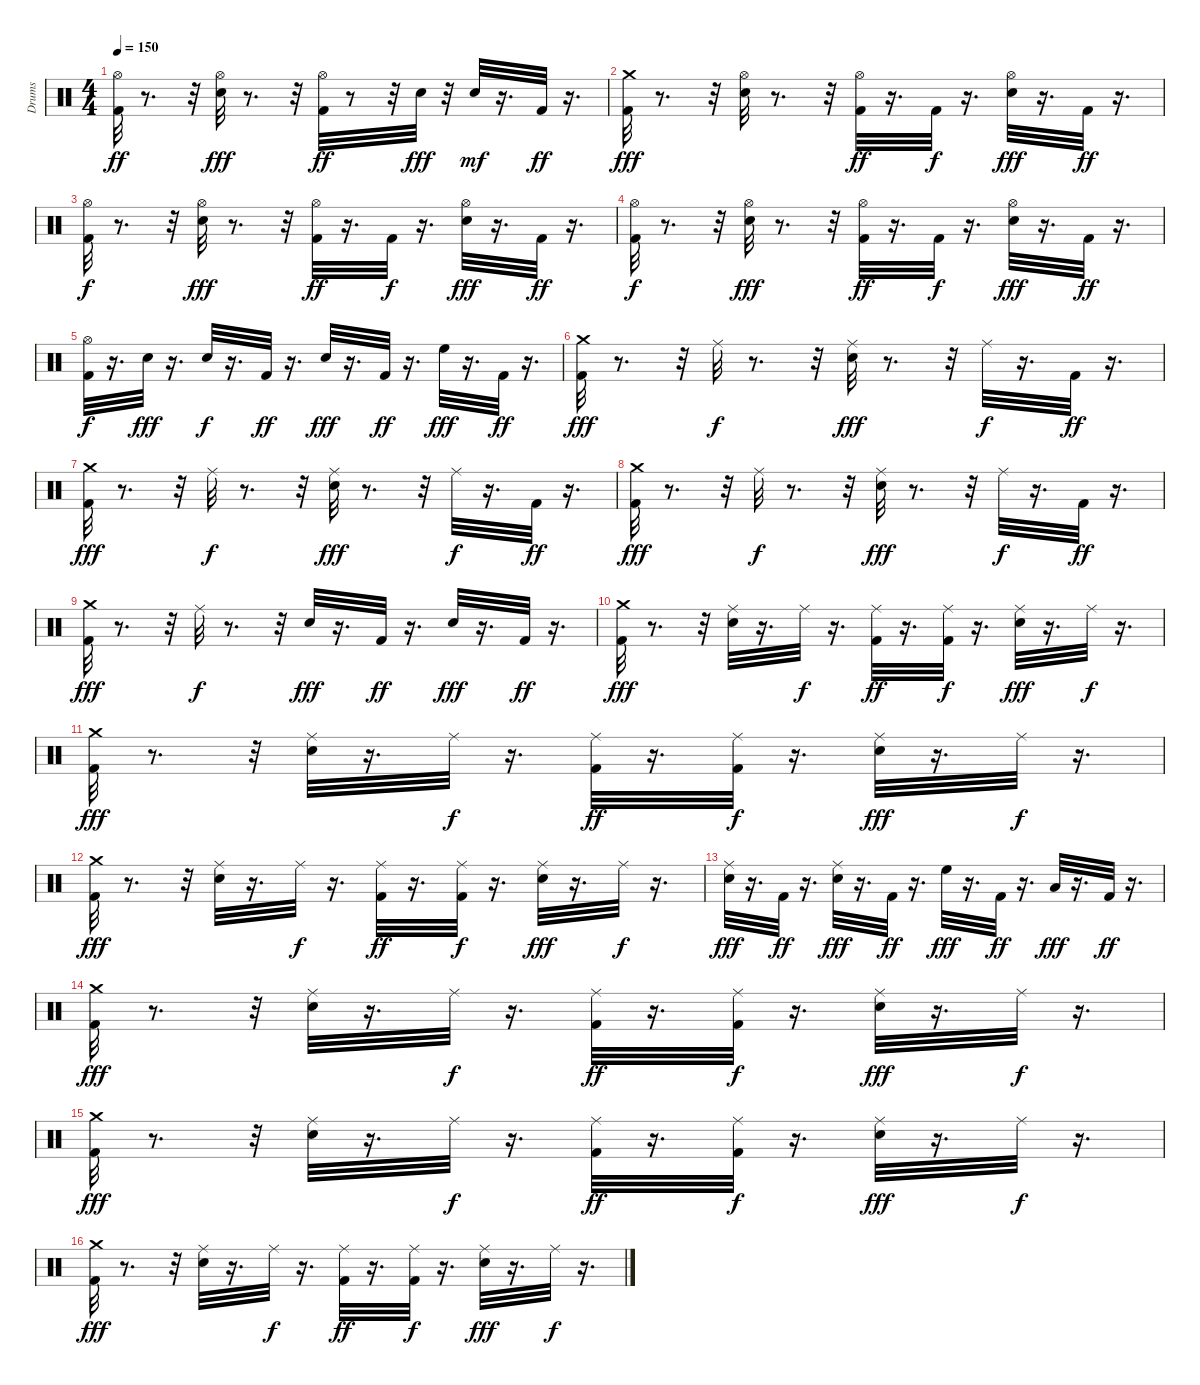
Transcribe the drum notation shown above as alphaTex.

\track ("Drums" "Drums") {instrument percussion}
\staff {score}
\articulation defaults
\ts (4 4)
\tempo 150
\clef neutral
\ks c
("Kick (hit) 2" "Hi-Hat (open)").32{dy ff} r.8{d} r.32 ("Snare (hit) 2" "Hi-Hat (open)").32{dy fff} r.8{d} r.32 ("Kick (hit) 2" "Hi-Hat (open)").32{dy ff} r.8 r.32 "Snare (hit) 2".32{dy fff} r.32 "Snare (hit) 2".32{dy mf} r.16{d} "Kick (hit) 2".32{dy ff} r.16{d} |
("Kick (hit) 2" "Crash medium (hit)").32{dy fff} r.8{d} r.32 ("Snare (hit) 2" "Hi-Hat (open)").32 r.8{d} r.32 ("Kick (hit) 2" "Hi-Hat (open)").32{dy ff} r.16{d} "Kick (hit) 2".32{dy f} r.16{d} ("Snare (hit) 2" "Hi-Hat (open)").32{dy fff} r.16{d} "Kick (hit) 2".32{dy ff} r.16{d} |
("Kick (hit) 2" "Hi-Hat (open)").32{dy f} r.8{d} r.32 ("Snare (hit) 2" "Hi-Hat (open)").32{dy fff} r.8{d} r.32 ("Kick (hit) 2" "Hi-Hat (open)").32{dy ff} r.16{d} "Kick (hit) 2".32{dy f} r.16{d} ("Snare (hit) 2" "Hi-Hat (open)").32{dy fff} r.16{d} "Kick (hit) 2".32{dy ff} r.16{d} |
("Kick (hit) 2" "Hi-Hat (open)").32{dy f} r.8{d} r.32 ("Snare (hit) 2" "Hi-Hat (open)").32{dy fff} r.8{d} r.32 ("Kick (hit) 2" "Hi-Hat (open)").32{dy ff} r.16{d} "Kick (hit) 2".32{dy f} r.16{d} ("Snare (hit) 2" "Hi-Hat (open)").32{dy fff} r.16{d} "Kick (hit) 2".32{dy ff} r.16{d} |
("Kick (hit) 2" "Hi-Hat (open)").32{dy f} r.16{d} "Snare (hit) 2".32{dy fff} r.16{d} "Snare (hit) 2".32{dy f} r.16{d} "Kick (hit) 2".32{dy ff} r.16{d} "Snare (hit) 2".32{dy fff} r.16{d} "Kick (hit) 2".32{dy ff} r.16{d} "High Floor Tom (hit)".32{dy fff} r.16{d} "Kick (hit) 2".32{dy ff} r.16{d} |
("Kick (hit) 2" "Crash medium (hit)").32{dy fff} r.8{d} r.32 "Ride (middle)".32{dy f} r.8{d} r.32 ("Snare (hit) 2" "Ride (middle)").32{dy fff} r.8{d} r.32 "Ride (middle)".32{dy f} r.16{d} "Kick (hit) 2".32{dy ff} r.16{d} |
("Kick (hit) 2" "Crash medium (hit)").32{dy fff} r.8{d} r.32 "Ride (middle)".32{dy f} r.8{d} r.32 ("Snare (hit) 2" "Ride (middle)").32{dy fff} r.8{d} r.32 "Ride (middle)".32{dy f} r.16{d} "Kick (hit) 2".32{dy ff} r.16{d} |
("Kick (hit) 2" "Crash medium (hit)").32{dy fff} r.8{d} r.32 "Ride (middle)".32{dy f} r.8{d} r.32 ("Snare (hit) 2" "Ride (middle)").32{dy fff} r.8{d} r.32 "Ride (middle)".32{dy f} r.16{d} "Kick (hit) 2".32{dy ff} r.16{d} |
("Kick (hit) 2" "Crash medium (hit)").32{dy fff} r.8{d} r.32 "Ride (middle)".32{dy f} r.8{d} r.32 "Snare (hit) 2".32{dy fff} r.16{d} "Kick (hit) 2".32{dy ff} r.16{d} "Snare (hit) 2".32{dy fff} r.16{d} "Kick (hit) 2".32{dy ff} r.16{d} |
("Kick (hit) 2" "Crash medium (hit)").32{dy fff} r.8{d} r.32 ("Snare (hit) 2" "Ride (middle)").32 r.16{d} "Ride (middle)".32{dy f} r.16{d} ("Kick (hit) 2" "Ride (middle)").32{dy ff} r.16{d} ("Kick (hit) 2" "Ride (middle)").32{dy f} r.16{d} ("Snare (hit) 2" "Ride (middle)").32{dy fff} r.16{d} "Ride (middle)".32{dy f} r.16{d} |
("Kick (hit) 2" "Crash medium (hit)").32{dy fff} r.8{d} r.32 ("Snare (hit) 2" "Ride (middle)").32 r.16{d} "Ride (middle)".32{dy f} r.16{d} ("Kick (hit) 2" "Ride (middle)").32{dy ff} r.16{d} ("Kick (hit) 2" "Ride (middle)").32{dy f} r.16{d} ("Snare (hit) 2" "Ride (middle)").32{dy fff} r.16{d} "Ride (middle)".32{dy f} r.16{d} |
("Kick (hit) 2" "Crash medium (hit)").32{dy fff} r.8{d} r.32 ("Snare (hit) 2" "Ride (middle)").32 r.16{d} "Ride (middle)".32{dy f} r.16{d} ("Kick (hit) 2" "Ride (middle)").32{dy ff} r.16{d} ("Kick (hit) 2" "Ride (middle)").32{dy f} r.16{d} ("Snare (hit) 2" "Ride (middle)").32{dy fff} r.16{d} "Ride (middle)".32{dy f} r.16{d} |
("Snare (hit) 2" "Ride (middle)").32{dy fff} r.16{d} "Kick (hit) 2".32{dy ff} r.16{d} ("Snare (hit) 2" "Ride (middle)").32{dy fff} r.16{d} "Kick (hit) 2".32{dy ff} r.16{d} "High Floor Tom (hit)".32{dy fff} r.16{d} "Kick (hit) 2".32{dy ff} r.16{d} "Low Tom (hit)".32{dy fff} r.16{d} "Kick (hit) 2".32{dy ff} r.16{d} |
("Kick (hit) 2" "Crash medium (hit)").32{dy fff} r.8{d} r.32 ("Snare (hit) 2" "Ride (middle)").32 r.16{d} "Ride (middle)".32{dy f} r.16{d} ("Kick (hit) 2" "Ride (middle)").32{dy ff} r.16{d} ("Kick (hit) 2" "Ride (middle)").32{dy f} r.16{d} ("Snare (hit) 2" "Ride (middle)").32{dy fff} r.16{d} "Ride (middle)".32{dy f} r.16{d} |
("Kick (hit) 2" "Crash medium (hit)").32{dy fff} r.8{d} r.32 ("Snare (hit) 2" "Ride (middle)").32 r.16{d} "Ride (middle)".32{dy f} r.16{d} ("Kick (hit) 2" "Ride (middle)").32{dy ff} r.16{d} ("Kick (hit) 2" "Ride (middle)").32{dy f} r.16{d} ("Snare (hit) 2" "Ride (middle)").32{dy fff} r.16{d} "Ride (middle)".32{dy f} r.16{d} |
("Kick (hit) 2" "Crash medium (hit)").32{dy fff} r.8{d} r.32 ("Snare (hit) 2" "Ride (middle)").32 r.16{d} "Ride (middle)".32{dy f} r.16{d} ("Kick (hit) 2" "Ride (middle)").32{dy ff} r.16{d} ("Kick (hit) 2" "Ride (middle)").32{dy f} r.16{d} ("Snare (hit) 2" "Ride (middle)").32{dy fff} r.16{d} "Ride (middle)".32{dy f} r.16{d}
